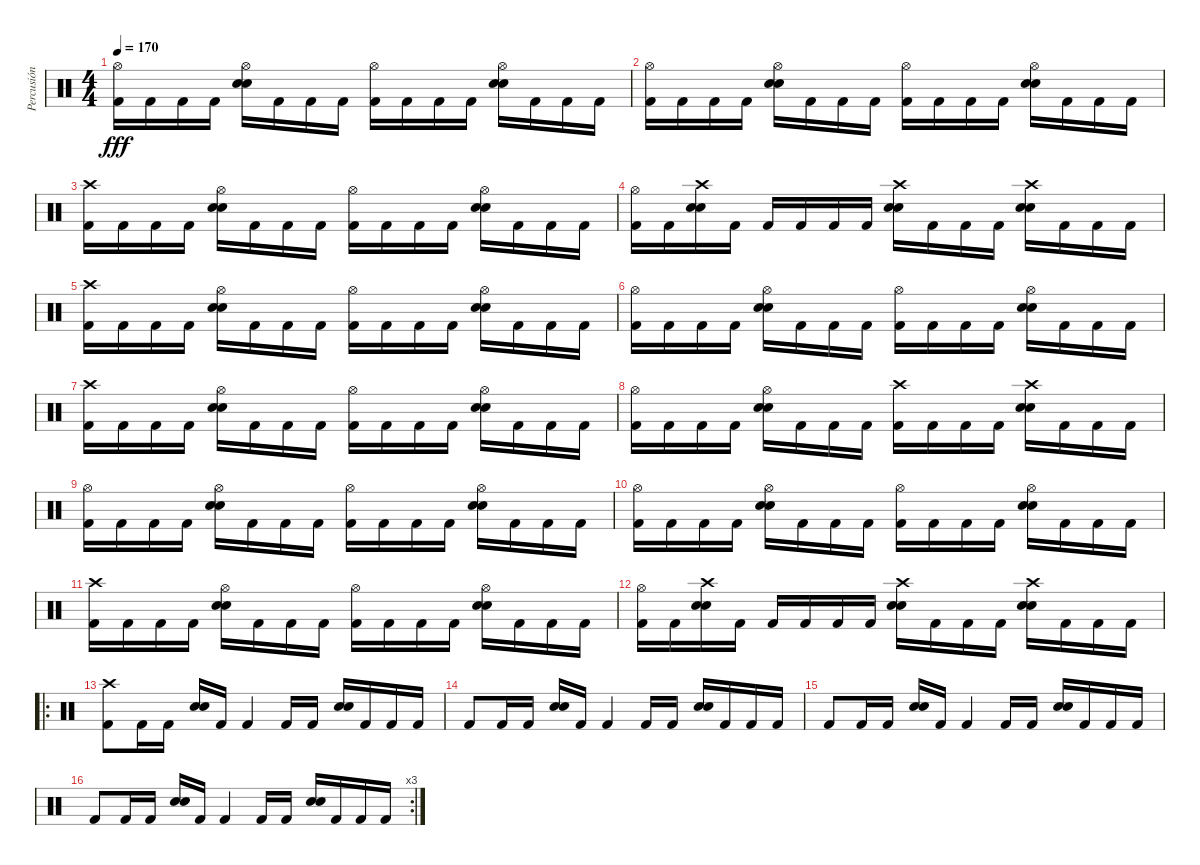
\track ("Percusión" "Percusión") {instrument percussion}
\staff {score}
\articulation defaults
\ts (4 4)
\tempo 170
\clef neutral
\ks c
("Kick (hit) 2" "Hi-Hat (open)").16{dy fff} "Kick (hit) 2".16 "Kick (hit) 2".16 "Kick (hit) 2".16 ("Snare (hit) 2" "Electric Snare (hit)" "Hi-Hat (open)").16 "Kick (hit) 2".16 "Kick (hit) 2".16 "Kick (hit) 2".16 ("Kick (hit) 2" "Hi-Hat (open)").16 "Kick (hit) 2".16 "Kick (hit) 2".16 "Kick (hit) 2".16 ("Snare (hit) 2" "Electric Snare (hit)" "Hi-Hat (open)").16 "Kick (hit) 2".16 "Kick (hit) 2".16 "Kick (hit) 2".16 |
("Kick (hit) 2" "Hi-Hat (open)").16 "Kick (hit) 2".16 "Kick (hit) 2".16 "Kick (hit) 2".16 ("Snare (hit) 2" "Electric Snare (hit)" "Hi-Hat (open)").16 "Kick (hit) 2".16 "Kick (hit) 2".16 "Kick (hit) 2".16 ("Kick (hit) 2" "Hi-Hat (open)").16 "Kick (hit) 2".16 "Kick (hit) 2".16 "Kick (hit) 2".16 ("Snare (hit) 2" "Electric Snare (hit)" "Hi-Hat (open)").16 "Kick (hit) 2".16 "Kick (hit) 2".16 "Kick (hit) 2".16 |
("Kick (hit) 2" "Crash high (hit)").16 "Kick (hit) 2".16 "Kick (hit) 2".16 "Kick (hit) 2".16 ("Snare (hit) 2" "Electric Snare (hit)" "Hi-Hat (open)").16 "Kick (hit) 2".16 "Kick (hit) 2".16 "Kick (hit) 2".16 ("Kick (hit) 2" "Hi-Hat (open)").16 "Kick (hit) 2".16 "Kick (hit) 2".16 "Kick (hit) 2".16 ("Snare (hit) 2" "Electric Snare (hit)" "Hi-Hat (open)").16 "Kick (hit) 2".16 "Kick (hit) 2".16 "Kick (hit) 2".16 |
("Kick (hit) 2" "Hi-Hat (open)").16 "Kick (hit) 2".16 ("Snare (hit) 2" "Electric Snare (hit)" "Crash high (hit)").16 "Kick (hit) 2".16 "Kick (hit) 2".16 "Kick (hit) 2".16 "Kick (hit) 2".16 "Kick (hit) 2".16 ("Snare (hit) 2" "Electric Snare (hit)" "Crash high (hit)").16 "Kick (hit) 2".16 "Kick (hit) 2".16 "Kick (hit) 2".16 ("Snare (hit) 2" "Electric Snare (hit)" "Crash high (hit)").16 "Kick (hit) 2".16 "Kick (hit) 2".16 "Kick (hit) 2".16 |
("Kick (hit) 2" "Crash high (hit)").16 "Kick (hit) 2".16 "Kick (hit) 2".16 "Kick (hit) 2".16 ("Snare (hit) 2" "Electric Snare (hit)" "Hi-Hat (open)").16 "Kick (hit) 2".16 "Kick (hit) 2".16 "Kick (hit) 2".16 ("Kick (hit) 2" "Hi-Hat (open)").16 "Kick (hit) 2".16 "Kick (hit) 2".16 "Kick (hit) 2".16 ("Snare (hit) 2" "Electric Snare (hit)" "Hi-Hat (open)").16 "Kick (hit) 2".16 "Kick (hit) 2".16 "Kick (hit) 2".16 |
("Kick (hit) 2" "Hi-Hat (open)").16 "Kick (hit) 2".16 "Kick (hit) 2".16 "Kick (hit) 2".16 ("Snare (hit) 2" "Electric Snare (hit)" "Hi-Hat (open)").16 "Kick (hit) 2".16 "Kick (hit) 2".16 "Kick (hit) 2".16 ("Kick (hit) 2" "Hi-Hat (open)").16 "Kick (hit) 2".16 "Kick (hit) 2".16 "Kick (hit) 2".16 ("Snare (hit) 2" "Electric Snare (hit)" "Hi-Hat (open)").16 "Kick (hit) 2".16 "Kick (hit) 2".16 "Kick (hit) 2".16 |
("Kick (hit) 2" "Crash high (hit)").16 "Kick (hit) 2".16 "Kick (hit) 2".16 "Kick (hit) 2".16 ("Snare (hit) 2" "Electric Snare (hit)" "Hi-Hat (open)").16 "Kick (hit) 2".16 "Kick (hit) 2".16 "Kick (hit) 2".16 ("Kick (hit) 2" "Hi-Hat (open)").16 "Kick (hit) 2".16 "Kick (hit) 2".16 "Kick (hit) 2".16 ("Snare (hit) 2" "Electric Snare (hit)" "Hi-Hat (open)").16 "Kick (hit) 2".16 "Kick (hit) 2".16 "Kick (hit) 2".16 |
("Kick (hit) 2" "Hi-Hat (open)").16 "Kick (hit) 2".16 "Kick (hit) 2".16 "Kick (hit) 2".16 ("Snare (hit) 2" "Electric Snare (hit)" "Hi-Hat (open)").16 "Kick (hit) 2".16 "Kick (hit) 2".16 "Kick (hit) 2".16 ("Kick (hit) 2" "Crash high (hit)").16 "Kick (hit) 2".16 "Kick (hit) 2".16 "Kick (hit) 2".16 ("Snare (hit) 2" "Electric Snare (hit)" "Crash high (hit)").16 "Kick (hit) 2".16 "Kick (hit) 2".16 "Kick (hit) 2".16 |
("Kick (hit) 2" "Hi-Hat (open)").16 "Kick (hit) 2".16 "Kick (hit) 2".16 "Kick (hit) 2".16 ("Snare (hit) 2" "Electric Snare (hit)" "Hi-Hat (open)").16 "Kick (hit) 2".16 "Kick (hit) 2".16 "Kick (hit) 2".16 ("Kick (hit) 2" "Hi-Hat (open)").16 "Kick (hit) 2".16 "Kick (hit) 2".16 "Kick (hit) 2".16 ("Snare (hit) 2" "Electric Snare (hit)" "Hi-Hat (open)").16 "Kick (hit) 2".16 "Kick (hit) 2".16 "Kick (hit) 2".16 |
("Kick (hit) 2" "Hi-Hat (open)").16 "Kick (hit) 2".16 "Kick (hit) 2".16 "Kick (hit) 2".16 ("Snare (hit) 2" "Electric Snare (hit)" "Hi-Hat (open)").16 "Kick (hit) 2".16 "Kick (hit) 2".16 "Kick (hit) 2".16 ("Kick (hit) 2" "Hi-Hat (open)").16 "Kick (hit) 2".16 "Kick (hit) 2".16 "Kick (hit) 2".16 ("Snare (hit) 2" "Electric Snare (hit)" "Hi-Hat (open)").16 "Kick (hit) 2".16 "Kick (hit) 2".16 "Kick (hit) 2".16 |
("Kick (hit) 2" "Crash high (hit)").16 "Kick (hit) 2".16 "Kick (hit) 2".16 "Kick (hit) 2".16 ("Snare (hit) 2" "Electric Snare (hit)" "Hi-Hat (open)").16 "Kick (hit) 2".16 "Kick (hit) 2".16 "Kick (hit) 2".16 ("Kick (hit) 2" "Hi-Hat (open)").16 "Kick (hit) 2".16 "Kick (hit) 2".16 "Kick (hit) 2".16 ("Snare (hit) 2" "Electric Snare (hit)" "Hi-Hat (open)").16 "Kick (hit) 2".16 "Kick (hit) 2".16 "Kick (hit) 2".16 |
("Kick (hit) 2" "Hi-Hat (open)").16 "Kick (hit) 2".16 ("Snare (hit) 2" "Electric Snare (hit)" "Crash high (hit)").16 "Kick (hit) 2".16 "Kick (hit) 2".16 "Kick (hit) 2".16 "Kick (hit) 2".16 "Kick (hit) 2".16 ("Snare (hit) 2" "Electric Snare (hit)" "Crash high (hit)").16 "Kick (hit) 2".16 "Kick (hit) 2".16 "Kick (hit) 2".16 ("Snare (hit) 2" "Electric Snare (hit)" "Crash high (hit)").16 "Kick (hit) 2".16 "Kick (hit) 2".16 "Kick (hit) 2".16 |
\ro
("Kick (hit) 2" "Crash high (hit)").8 "Kick (hit) 2".16 "Kick (hit) 2".16 ("Snare (hit) 2" "Electric Snare (hit)").16 "Kick (hit) 2".16 "Kick (hit) 2".4 "Kick (hit) 2".16 "Kick (hit) 2".16 ("Snare (hit) 2" "Electric Snare (hit)").16 "Kick (hit) 2".16 "Kick (hit) 2".16 "Kick (hit) 2".16 |
"Kick (hit) 2".8 "Kick (hit) 2".16 "Kick (hit) 2".16 ("Snare (hit) 2" "Electric Snare (hit)").16 "Kick (hit) 2".16 "Kick (hit) 2".4 "Kick (hit) 2".16 "Kick (hit) 2".16 ("Snare (hit) 2" "Electric Snare (hit)").16 "Kick (hit) 2".16 "Kick (hit) 2".16 "Kick (hit) 2".16 |
"Kick (hit) 2".8 "Kick (hit) 2".16 "Kick (hit) 2".16 ("Snare (hit) 2" "Electric Snare (hit)").16 "Kick (hit) 2".16 "Kick (hit) 2".4 "Kick (hit) 2".16 "Kick (hit) 2".16 ("Snare (hit) 2" "Electric Snare (hit)").16 "Kick (hit) 2".16 "Kick (hit) 2".16 "Kick (hit) 2".16 |
\rc 3 "Kick (hit) 2".8 "Kick (hit) 2".16 "Kick (hit) 2".16
("Snare (hit) 2" "Electric Snare (hit)").16 "Kick (hit) 2".16 "Kick (hit) 2".4 "Kick (hit) 2".16 "Kick (hit) 2".16 ("Snare (hit) 2" "Electric Snare (hit)").16 "Kick (hit) 2".16 "Kick (hit) 2".16 "Kick (hit) 2".16
